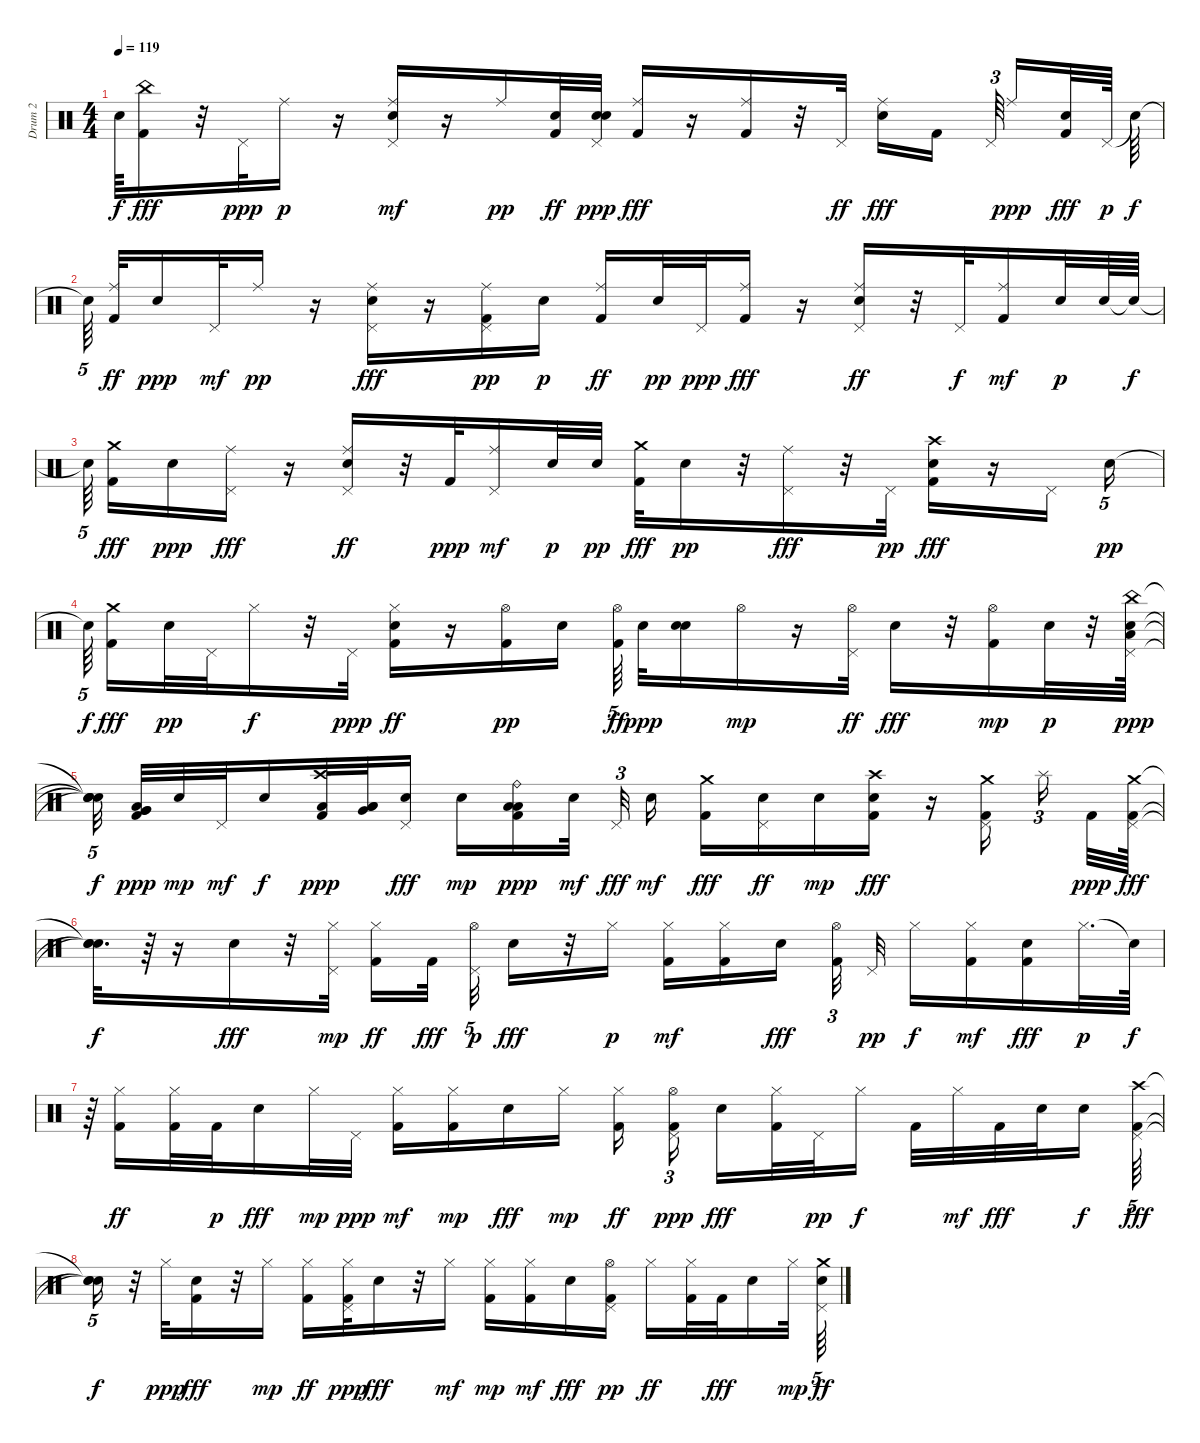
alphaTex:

\track ("Drum 2                          " "Drum 2    ") {instrument percussion}
\staff {score}
\articulation defaults
\ts (4 4)
\tempo 119
\clef neutral
\ks c "Snare (hit)"{t}.64{dy f}
("Kick (hit) 2" "China (hit)").16{dy fff} r.32 "Pedal Hi-Hat (hit)".32{dy ppp} "Ride (middle)".16{dy p} r.16 ("Pedal Hi-Hat (hit)" "Snare (hit) 2" "Ride (middle)").16{dy mf} r.16 "Ride (middle)".16{dy pp} ("Snare (hit) 2" "Kick (hit) 2").32{dy ff} ("Snare (hit) 2" "Pedal Hi-Hat (hit)" "Snare (hit) 2").32{dy ppp} ("Ride (middle)" "Kick (hit) 2").16{dy fff} r.16 ("Ride (middle)" "Kick (hit) 2").16 r.32 "Pedal Hi-Hat (hit)".32{dy ff} ("Snare (hit) 2" "Ride (middle)").16{dy fff} "Kick (hit) 2".16{beam splitsecondary} "Pedal Hi-Hat (hit)".64{tu (3 2) beam splitsecondary} "Ride (middle)".16{dy ppp} ("Snare (hit) 2" "Kick (hit) 2").32{dy fff} "Pedal Hi-Hat (hit)".64{dy p} "Snare (hit)"{t}.64{dy f} |
"Snare (hit)"{t}.64{tu (5 4) beam splitsecondary} ("Kick (hit) 2" "Ride (middle)").32{dy ff} "Snare (hit) 2".16{dy ppp} "Pedal Hi-Hat (hit)".32{dy mf} "Ride (middle)".16{dy pp} r.16 ("Pedal Hi-Hat (hit)" "Snare (hit) 2" "Ride (middle)").16{dy fff} r.16 ("Pedal Hi-Hat (hit)" "Kick (hit) 2" "Ride (middle)").16{dy pp} "Snare (hit) 2".16{dy p} ("Kick (hit) 2" "Ride (middle)").16{dy ff} "Snare (hit) 2".32{dy pp} "Pedal Hi-Hat (hit)".32{dy ppp} ("Kick (hit) 2" "Ride (middle)").16{dy fff} r.16 ("Pedal Hi-Hat (hit)" "Snare (hit) 2" "Ride (middle)").16{dy ff} r.32 "Pedal Hi-Hat (hit)".32{dy f} ("Kick (hit) 2" "Ride (middle)").16{dy mf} "Snare (hit) 2".32{dy p} "Snare (hit) 2".64 "Snare (hit)"{t}.64{dy f} |
"Snare (hit)"{t}.64{tu (5 4) beam splitsecondary} ("Kick (hit) 2" "Crash medium (hit)").16{dy fff} "Snare (hit) 2".16{dy ppp} ("Ride (middle)" "Pedal Hi-Hat (hit)").16{dy fff} r.16 ("Pedal Hi-Hat (hit)" "Snare (hit) 2" "Ride (middle)").16{dy ff} r.32 "Kick (hit) 2".32{dy ppp} ("Pedal Hi-Hat (hit)" "Ride (middle)").16{dy mf} "Snare (hit) 2".32{dy p} "Snare (hit) 2".32{dy pp} ("Kick (hit) 2" "Crash medium (hit)").32{dy fff} "Snare (hit) 2".16{dy pp} r.32 ("Ride (middle)" "Pedal Hi-Hat (hit)").16{dy fff} r.32 "Pedal Hi-Hat (hit)".32{dy pp} ("Snare (hit) 2" "Kick (hit) 2" "Crash high (hit)").16{dy fff} r.16 "Pedal Hi-Hat (hit)".16 "Snare (hit) 2".16{tu (5 4) dy pp} |
"Snare (hit)"{t}.64{tu (5 4) dy f beam splitsecondary} ("Crash medium (hit)" "Kick (hit) 2").16{dy fff} "Snare (hit) 2".32{dy pp} "Pedal Hi-Hat (hit)".32 "Hi-Hat (closed)".16{dy f} r.32 "Pedal Hi-Hat (hit)".32{dy ppp} ("Kick (hit) 2" "Snare (hit) 2" "Hi-Hat (closed)").16{dy ff} r.16 ("Kick (hit) 2" "Hi-Hat (open)").16{dy pp} "Snare (hit) 2".16 ("Kick (hit) 2" "Hi-Hat (open)").64{tu (5 4) dy ff beam splitsecondary} "Snare (hit) 2".32{dy ppp} ("Snare (hit) 2" "Snare (hit) 2").16 "Hi-Hat (open)".16{dy mp} r.16 ("Pedal Hi-Hat (hit)" "Hi-Hat (open)").32{dy ff} "Snare (hit) 2".16{dy fff} r.32 ("Kick (hit) 2" "Hi-Hat (open)").16{dy mp} "Snare (hit) 2".32{dy p} r.32 ("Snare (hit) 2" "Pedal Hi-Hat (hit)" "China (hit)" "Low Floor Tom (hit)").64{dy ppp} |
("Snare (hit)"{t} "Snare (hit)"{t} "Snare (hit)"{t} "Snare (hit)"{t}).32{tu (5 4) dy f beam splitsecondary} ("Kick (hit) 2" "Very Low Tom (hit)" "Very Low Tom (hit)" "Low Floor Tom (hit)").32{dy ppp} "Snare (hit) 2".32{dy mp} "Pedal Hi-Hat (hit)".32{dy mf} "Snare (hit) 2".16{dy f} ("Crash high (hit)" "Kick (hit) 2" "Low Floor Tom (hit)").32{dy ppp} ("Low Floor Tom (hit)" "Very Low Tom (hit)" "Low Floor Tom (hit)").32 ("Snare (hit) 2" "Pedal Hi-Hat (hit)").16{dy fff} "Electric Snare (hit)".16{dy mp} ("Ride (bell)" "Kick (hit) 2" "Low Floor Tom (hit)" "Low Floor Tom (hit)").16{dy ppp} "Snare (hit) 2".32{dy mf beam splitsecondary} "Pedal Hi-Hat (hit)".32{tu (3 2) dy fff} "Electric Snare (hit)".16{dy mf} ("Kick (hit) 2" "Crash medium (hit)").16{dy fff} ("Pedal Hi-Hat (hit)" "Snare (hit) 2").16{dy ff} "Electric Snare (hit)".16{dy mp} ("Snare (hit) 2" "Kick (hit) 2" "Crash high (hit)").16{dy fff} r.16 ("Pedal Hi-Hat (hit)" "Kick (hit) 2" "Crash medium (hit)").16{beam splitsecondary} "Splash (hit)".16{tu (3 2) beam splitsecondary} "Kick (hit) 2".32{dy ppp} ("Pedal Hi-Hat (hit)" "Crash medium (hit)" "Kick (hit) 2").64{dy fff} |
("Snare (hit)"{t} "Snare (hit)"{t} "Snare (hit)"{t}).32{d dy f} r.64 r.16 "Snare (hit) 2".16{dy fff} r.32 ("Hi-Hat (closed)" "Pedal Hi-Hat (hit)").32{dy mp} ("Kick (hit) 2" "Hi-Hat (closed)").16{dy ff} "Kick (hit) 2".32{dy fff beam splitsecondary} ("Hi-Hat (open)" "Pedal Hi-Hat (hit)").32{tu (5 4) dy p} "Snare (hit) 2".16{dy fff} r.32 "Hi-Hat (closed)".16{dy p} ("Kick (hit) 2" "Hi-Hat (closed)").16{dy mf} ("Kick (hit) 2" "Hi-Hat (closed)").16 "Snare (hit) 2".16{dy fff beam splitsecondary} ("Hi-Hat (open)" "Kick (hit) 2").32{tu (3 2)} "Pedal Hi-Hat (hit)".32{dy pp} "Hi-Hat (closed)".16{dy f} ("Kick (hit) 2" "Hi-Hat (closed)").16{dy mf} ("Kick (hit) 2" "Snare (hit) 2").16{dy fff} "Hi-Hat (closed)".32{d dy p} "Snare (hit)"{t}.64{dy f} |
r.64 ("Kick (hit) 2" "Hi-Hat (closed)").16{dy ff} ("Hi-Hat (closed)" "Kick (hit) 2").32 "Kick (hit) 2".32{dy p} "Snare (hit) 2".16{dy fff} "Hi-Hat (closed)".32{dy mp} "Pedal Hi-Hat (hit)".32{dy ppp} ("Kick (hit) 2" "Hi-Hat (closed)").16{dy mf} ("Kick (hit) 2" "Hi-Hat (closed)").16{dy mp} "Snare (hit) 2".16{dy fff} "Hi-Hat (closed)".16{dy mp} ("Kick (hit) 2" "Hi-Hat (closed)").16{dy ff beam splitsecondary} ("Kick (hit) 2" "Hi-Hat (open)" "Pedal Hi-Hat (hit)").16{tu (3 2) dy ppp beam splitsecondary} "Snare (hit) 2".16{dy fff} ("Hi-Hat (closed)" "Kick (hit) 2").32 "Pedal Hi-Hat (hit)".32{dy pp} "Hi-Hat (closed)".16{dy f} "Kick (hit) 2".32 "Hi-Hat (closed)".32{dy mf} "Kick (hit) 2".32{dy fff} "Snare (hit) 2".32 "Electric Snare (hit)".16{dy f beam splitsecondary} ("Kick (hit) 2" "Crash high (hit)" "Pedal Hi-Hat (hit)").64{tu (5 4) dy fff} |
("Snare (hit)"{t} "Snare (hit)"{t} "Snare (hit)"{t}).16{tu (5 4) dy f} r.32 "Hi-Hat (closed)".32{dy ppp} ("Kick (hit) 2" "Snare (hit) 2").16{dy fff} r.32 "Hi-Hat (closed)".16{dy mp} ("Kick (hit) 2" "Hi-Hat (closed)").16{dy ff} ("Kick (hit) 2" "Hi-Hat (closed)" "Pedal Hi-Hat (hit)").32{dy ppp} "Snare (hit) 2".16{dy fff} r.32 "Hi-Hat (closed)".16{dy mf} ("Hi-Hat (closed)" "Kick (hit) 2").16{dy mp} ("Kick (hit) 2" "Hi-Hat (closed)").16{dy mf} "Snare (hit) 2".16{dy fff} ("Hi-Hat (open)" "Kick (hit) 2" "Pedal Hi-Hat (hit)").16{dy pp} "Hi-Hat (closed)".16{dy ff} ("Hi-Hat (closed)" "Kick (hit) 2").32 "Kick (hit) 2".32{dy fff} "Snare (hit) 2".16 "Hi-Hat (closed)".32{dy mp} ("Snare (hit) 2" "Pedal Hi-Hat (hit)" "Crash medium (hit)").64{tu (5 4) dy ff}
